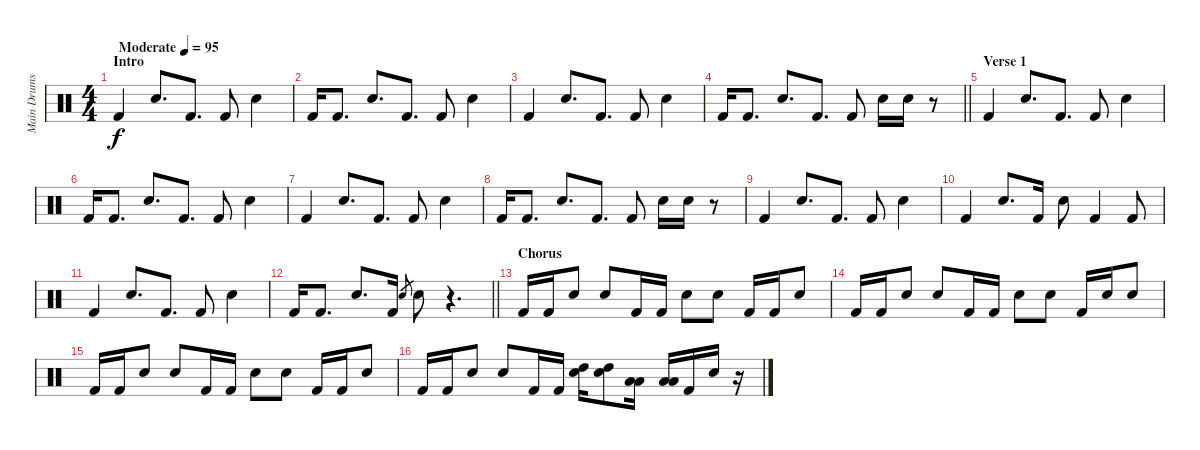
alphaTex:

\track ("Main Drums" "Main Drums") {instrument percussion}
\staff {score}
\articulation defaults
\ts (4 4)
\section ("" "Intro")
\tempo (95 "Moderate")
\clef neutral
\ks c "Kick (hit) 2".4{dy f} "Snare (hit) 2".8{d} "Kick (hit) 2".8{d} "Kick (hit) 2".8 "Snare (hit) 2".4
|
"Kick (hit) 2".16 "Kick (hit) 2".8{d} "Snare (hit) 2".8{d} "Kick (hit) 2".8{d} "Kick (hit) 2".8 "Snare (hit) 2".4 |
"Kick (hit) 2".4 "Snare (hit) 2".8{d} "Kick (hit) 2".8{d} "Kick (hit) 2".8 "Snare (hit) 2".4 |
\barLineRight lightlight "Kick (hit) 2".16 "Kick (hit) 2".8{d} "Snare (hit) 2".8{d} "Kick (hit) 2".8{d} "Kick (hit) 2".8 "Snare (hit) 2".16 "Snare (hit) 2".16
r.8 |
\section ("" "Verse 1")
"Kick (hit) 2".4 "Snare (hit) 2".8{d} "Kick (hit) 2".8{d} "Kick (hit) 2".8 "Snare (hit) 2".4 |
"Kick (hit) 2".16 "Kick (hit) 2".8{d} "Snare (hit) 2".8{d} "Kick (hit) 2".8{d} "Kick (hit) 2".8 "Snare (hit) 2".4 |
"Kick (hit) 2".4 "Snare (hit) 2".8{d} "Kick (hit) 2".8{d} "Kick (hit) 2".8 "Snare (hit) 2".4 |
"Kick (hit) 2".16 "Kick (hit) 2".8{d} "Snare (hit) 2".8{d} "Kick (hit) 2".8{d} "Kick (hit) 2".8 "Snare (hit) 2".16 "Snare (hit) 2".16 r.8 |
"Kick (hit) 2".4 "Snare (hit) 2".8{d} "Kick (hit) 2".8{d} "Kick (hit) 2".8 "Snare (hit) 2".4 |
"Kick (hit) 2".4 "Snare (hit) 2".8{d} "Kick (hit) 2".16 "Snare (hit) 2".8 "Kick (hit) 2".4 "Kick (hit) 2".8 |
"Kick (hit) 2".4 "Snare (hit) 2".8{d} "Kick (hit) 2".8{d} "Kick (hit) 2".8 "Snare (hit) 2".4 |
\barLineRight lightlight "Kick (hit) 2".16 "Kick (hit) 2".8{d} "Snare (hit) 2".8{d} "Kick (hit) 2".16 "Snare (hit) 2".8{gr} "Snare (hit) 2".8
r.4{d} |
\section ("" "Chorus")
"Kick (hit) 2".16 "Kick (hit) 2".16 "Snare (hit) 2".8 "Snare (hit) 2".8 "Kick (hit) 2".16 "Kick (hit) 2".16 "Snare (hit) 2".8 "Snare (hit) 2".8 "Kick (hit) 2".16 "Kick (hit) 2".16 "Snare (hit) 2".8 |
"Kick (hit) 2".16 "Kick (hit) 2".16 "Snare (hit) 2".8 "Snare (hit) 2".8 "Kick (hit) 2".16 "Kick (hit) 2".16 "Snare (hit) 2".8 "Snare (hit) 2".8 "Kick (hit) 2".16 "Snare (hit) 2".16 "Snare (hit) 2".8 |
"Kick (hit) 2".16 "Kick (hit) 2".16 "Snare (hit) 2".8 "Snare (hit) 2".8 "Kick (hit) 2".16 "Kick (hit) 2".16 "Snare (hit) 2".8 "Snare (hit) 2".8 "Kick (hit) 2".16 "Kick (hit) 2".16 "Snare (hit) 2".8 |
"Kick (hit) 2".16 "Kick (hit) 2".16 "Snare (hit) 2".8 "Snare (hit) 2".8 "Kick (hit) 2".16 "Kick (hit) 2".16 ("High Tom (hit)" "Snare (hit) 2").16 ("High Tom (hit)" "Snare (hit) 2").8 ("Low Tom (hit)" "Low Floor Tom (hit)").16 ("Low Tom (hit)" "Low Floor Tom (hit)").16 "Kick (hit) 2".16 "Snare (hit) 2".16 r.16
